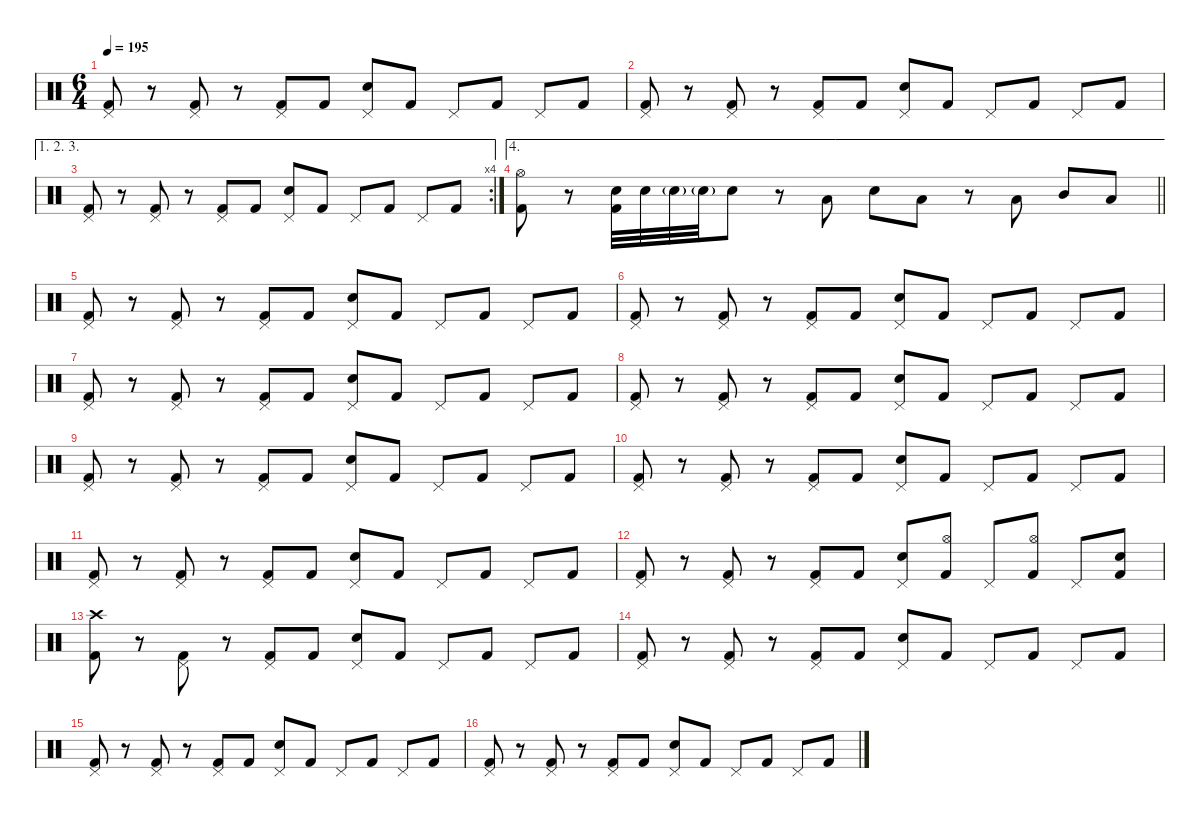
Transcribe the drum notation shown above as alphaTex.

\defaultSystemsLayout 4
\hideDynamics
\bracketExtendMode nobrackets
\singleTrackTrackNamePolicy hidden
\multiTrackTrackNamePolicy hidden
\firstSystemTrackNameMode fullname
\firstSystemTrackNameOrientation horizontal
\otherSystemsTrackNameOrientation horizontal
\track ("Drums" "drm.") {instrument percussion}
\staff {score}
\articulation defaults
\ts (6 4)
\tempo 195
\clef neutral
\ks c
("Pedal Hi-Hat (hit)" "Kick (hit) 2").8{dy mp beam Up} r.8{beam Up} ("Pedal Hi-Hat (hit)" "Kick (hit) 2").8{beam Up} r.8{beam Up} ("Pedal Hi-Hat (hit)" "Kick (hit) 2").8{beam Up} "Kick (hit) 2".8{beam Up} ("Pedal Hi-Hat (hit)" "Snare (hit) 2").8{beam Up} "Kick (hit) 2".8{beam Up} "Pedal Hi-Hat (hit)".8{beam Up} "Kick (hit) 2".8{beam Up} "Pedal Hi-Hat (hit)".8{beam Up} "Kick (hit) 2".8{beam Up} |
("Pedal Hi-Hat (hit)" "Kick (hit) 2").8{beam Up} r.8{beam Up} ("Pedal Hi-Hat (hit)" "Kick (hit) 2").8{beam Up} r.8{beam Up} ("Pedal Hi-Hat (hit)" "Kick (hit) 2").8{beam Up} "Kick (hit) 2".8{beam Up} ("Pedal Hi-Hat (hit)" "Snare (hit) 2").8{beam Up} "Kick (hit) 2".8{beam Up} "Pedal Hi-Hat (hit)".8{beam Up} "Kick (hit) 2".8{beam Up} "Pedal Hi-Hat (hit)".8{beam Up} "Kick (hit) 2".8{beam Up} |
\ae (1 2 3)
\rc 4
("Pedal Hi-Hat (hit)" "Kick (hit) 2").8{beam Up} r.8{beam Up} ("Pedal Hi-Hat (hit)" "Kick (hit) 2").8{beam Up} r.8{beam Up} ("Pedal Hi-Hat (hit)" "Kick (hit) 2").8{beam Up} "Kick (hit) 2".8{beam Up} ("Pedal Hi-Hat (hit)" "Snare (hit) 2").8{beam Up} "Kick (hit) 2".8{beam Up} "Pedal Hi-Hat (hit)".8{beam Up} "Kick (hit) 2".8{beam Up} "Pedal Hi-Hat (hit)".8{beam Up} "Kick (hit) 2".8{beam Up} |
\ae 4
\barLineRight lightlight
("Hi-Hat (open)" "Kick (hit) 2").8{beam Down} r.8{beam Down} ("Snare (hit) 2" "Kick (hit) 2").32{beam Down} "Snare (hit) 2".32{beam Down} "Snare (hit) 2"{g}.32{beam Down} "Snare (hit) 2"{g}.32{beam Down} "Snare (hit) 2".8{beam Down} r.8{beam Down} "Low Tom (hit)".8{beam Down} "Snare (hit) 2".8{beam Down} "Low Tom (hit)".8{beam Down} r.8{beam Down} "Low Tom (hit)".8{beam Up} "Mid Tom (hit)".8{beam Up} "Low Tom (hit)".8{beam Up} |
("Pedal Hi-Hat (hit)" "Kick (hit) 2").8{beam Up} r.8{beam Up} ("Pedal Hi-Hat (hit)" "Kick (hit) 2").8{beam Up} r.8{beam Up} ("Pedal Hi-Hat (hit)" "Kick (hit) 2").8{beam Up} "Kick (hit) 2".8{beam Up} ("Pedal Hi-Hat (hit)" "Snare (hit) 2").8{beam Up} "Kick (hit) 2".8{beam Up} "Pedal Hi-Hat (hit)".8{beam Up} "Kick (hit) 2".8{beam Up} "Pedal Hi-Hat (hit)".8{beam Up} "Kick (hit) 2".8{beam Up} |
("Pedal Hi-Hat (hit)" "Kick (hit) 2").8{beam Up} r.8{beam Up} ("Pedal Hi-Hat (hit)" "Kick (hit) 2").8{beam Up} r.8{beam Up} ("Pedal Hi-Hat (hit)" "Kick (hit) 2").8{beam Up} "Kick (hit) 2".8{beam Up} ("Pedal Hi-Hat (hit)" "Snare (hit) 2").8{beam Up} "Kick (hit) 2".8{beam Up} "Pedal Hi-Hat (hit)".8{beam Up} "Kick (hit) 2".8{beam Up} "Pedal Hi-Hat (hit)".8{beam Up} "Kick (hit) 2".8{beam Up} |
("Pedal Hi-Hat (hit)" "Kick (hit) 2").8{beam Up} r.8{beam Up} ("Pedal Hi-Hat (hit)" "Kick (hit) 2").8{beam Up} r.8{beam Up} ("Pedal Hi-Hat (hit)" "Kick (hit) 2").8{beam Up} "Kick (hit) 2".8{beam Up} ("Pedal Hi-Hat (hit)" "Snare (hit) 2").8{beam Up} "Kick (hit) 2".8{beam Up} "Pedal Hi-Hat (hit)".8{beam Up} "Kick (hit) 2".8{beam Up} "Pedal Hi-Hat (hit)".8{beam Up} "Kick (hit) 2".8{beam Up} |
("Pedal Hi-Hat (hit)" "Kick (hit) 2").8{beam Up} r.8{beam Up} ("Pedal Hi-Hat (hit)" "Kick (hit) 2").8{beam Up} r.8{beam Up} ("Pedal Hi-Hat (hit)" "Kick (hit) 2").8{beam Up} "Kick (hit) 2".8{beam Up} ("Pedal Hi-Hat (hit)" "Snare (hit) 2").8{beam Up} "Kick (hit) 2".8{beam Up} "Pedal Hi-Hat (hit)".8{beam Up} "Kick (hit) 2".8{beam Up} "Pedal Hi-Hat (hit)".8{beam Up} "Kick (hit) 2".8{beam Up} |
("Pedal Hi-Hat (hit)" "Kick (hit) 2").8{beam Up} r.8{beam Up} ("Pedal Hi-Hat (hit)" "Kick (hit) 2").8{beam Up} r.8{beam Up} ("Pedal Hi-Hat (hit)" "Kick (hit) 2").8{beam Up} "Kick (hit) 2".8{beam Up} ("Pedal Hi-Hat (hit)" "Snare (hit) 2").8{beam Up} "Kick (hit) 2".8{beam Up} "Pedal Hi-Hat (hit)".8{beam Up} "Kick (hit) 2".8{beam Up} "Pedal Hi-Hat (hit)".8{beam Up} "Kick (hit) 2".8{beam Up} |
("Pedal Hi-Hat (hit)" "Kick (hit) 2").8{beam Up} r.8{beam Up} ("Pedal Hi-Hat (hit)" "Kick (hit) 2").8{beam Up} r.8{beam Up} ("Pedal Hi-Hat (hit)" "Kick (hit) 2").8{beam Up} "Kick (hit) 2".8{beam Up} ("Pedal Hi-Hat (hit)" "Snare (hit) 2").8{beam Up} "Kick (hit) 2".8{beam Up} "Pedal Hi-Hat (hit)".8{beam Up} "Kick (hit) 2".8{beam Up} "Pedal Hi-Hat (hit)".8{beam Up} "Kick (hit) 2".8{beam Up} |
("Pedal Hi-Hat (hit)" "Kick (hit) 2").8{beam Up} r.8{beam Up} ("Pedal Hi-Hat (hit)" "Kick (hit) 2").8{beam Up} r.8{beam Up} ("Pedal Hi-Hat (hit)" "Kick (hit) 2").8{beam Up} "Kick (hit) 2".8{beam Up} ("Pedal Hi-Hat (hit)" "Snare (hit) 2").8{beam Up} "Kick (hit) 2".8{beam Up} "Pedal Hi-Hat (hit)".8{beam Up} "Kick (hit) 2".8{beam Up} "Pedal Hi-Hat (hit)".8{beam Up} "Kick (hit) 2".8{beam Up} |
("Pedal Hi-Hat (hit)" "Kick (hit) 2").8{beam Up} r.8{beam Up} ("Pedal Hi-Hat (hit)" "Kick (hit) 2").8{beam Up} r.8{beam Up} ("Pedal Hi-Hat (hit)" "Kick (hit) 2").8{beam Up} "Kick (hit) 2".8{beam Up} ("Pedal Hi-Hat (hit)" "Snare (hit) 2").8{beam Up} ("Hi-Hat (open)" "Kick (hit) 2").8{beam Up} "Pedal Hi-Hat (hit)".8{beam Up} ("Hi-Hat (open)" "Kick (hit) 2").8{beam Up} "Pedal Hi-Hat (hit)".8{beam Up} ("Snare (hit) 2" "Kick (hit) 2").8{beam Up} |
("Crash high (hit)" "Kick (hit) 2").8{beam Down} r.8{beam Down} ("Pedal Hi-Hat (hit)" "Kick (hit) 2").8{beam Down} r.8{beam Down} ("Pedal Hi-Hat (hit)" "Kick (hit) 2").8{beam Up} "Kick (hit) 2".8{beam Up} ("Pedal Hi-Hat (hit)" "Snare (hit) 2").8{beam Up} "Kick (hit) 2".8{beam Up} "Pedal Hi-Hat (hit)".8{beam Up} "Kick (hit) 2".8{beam Up} "Pedal Hi-Hat (hit)".8{beam Up} "Kick (hit) 2".8{beam Up} |
("Pedal Hi-Hat (hit)" "Kick (hit) 2").8{beam Up} r.8{beam Up} ("Pedal Hi-Hat (hit)" "Kick (hit) 2").8{beam Up} r.8{beam Up} ("Pedal Hi-Hat (hit)" "Kick (hit) 2").8{beam Up} "Kick (hit) 2".8{beam Up} ("Pedal Hi-Hat (hit)" "Snare (hit) 2").8{beam Up} "Kick (hit) 2".8{beam Up} "Pedal Hi-Hat (hit)".8{beam Up} "Kick (hit) 2".8{beam Up} "Pedal Hi-Hat (hit)".8{beam Up} "Kick (hit) 2".8{beam Up} |
("Pedal Hi-Hat (hit)" "Kick (hit) 2").8{beam Up} r.8{beam Up} ("Pedal Hi-Hat (hit)" "Kick (hit) 2").8{beam Up} r.8{beam Up} ("Pedal Hi-Hat (hit)" "Kick (hit) 2").8{beam Up} "Kick (hit) 2".8{beam Up} ("Pedal Hi-Hat (hit)" "Snare (hit) 2").8{beam Up} "Kick (hit) 2".8{beam Up} "Pedal Hi-Hat (hit)".8{beam Up} "Kick (hit) 2".8{beam Up} "Pedal Hi-Hat (hit)".8{beam Up} "Kick (hit) 2".8{beam Up} |
("Pedal Hi-Hat (hit)" "Kick (hit) 2").8{beam Up} r.8{beam Up} ("Pedal Hi-Hat (hit)" "Kick (hit) 2").8{beam Up} r.8{beam Up} ("Pedal Hi-Hat (hit)" "Kick (hit) 2").8{beam Up} "Kick (hit) 2".8{beam Up} ("Pedal Hi-Hat (hit)" "Snare (hit) 2").8{beam Up} "Kick (hit) 2".8{beam Up} "Pedal Hi-Hat (hit)".8{beam Up} "Kick (hit) 2".8{beam Up} "Pedal Hi-Hat (hit)".8{beam Up} "Kick (hit) 2".8{beam Up}
